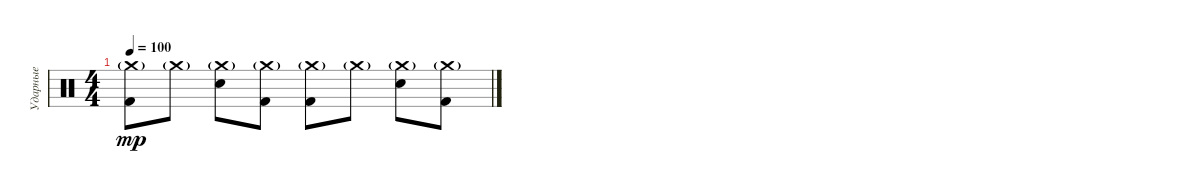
\track ("Ударные" "Ударные") {instrument percussion}
\staff {score}
\articulation defaults
\ts (4 4)
\tempo 100
\clef neutral
\ks c
("Crash medium (hit)"{g} "Kick (hit) 2").8{dy mp} "Crash medium (hit)"{g}.8 ("Crash medium (hit)"{g} "Electric Snare (hit)").8 ("Crash medium (hit)"{g} "Kick (hit) 2").8 ("Crash medium (hit)"{g} "Kick (hit) 2").8 "Crash medium (hit)"{g}.8 ("Crash medium (hit)"{g} "Electric Snare (hit)").8 ("Crash medium (hit)"{g} "Kick (hit) 2").8
